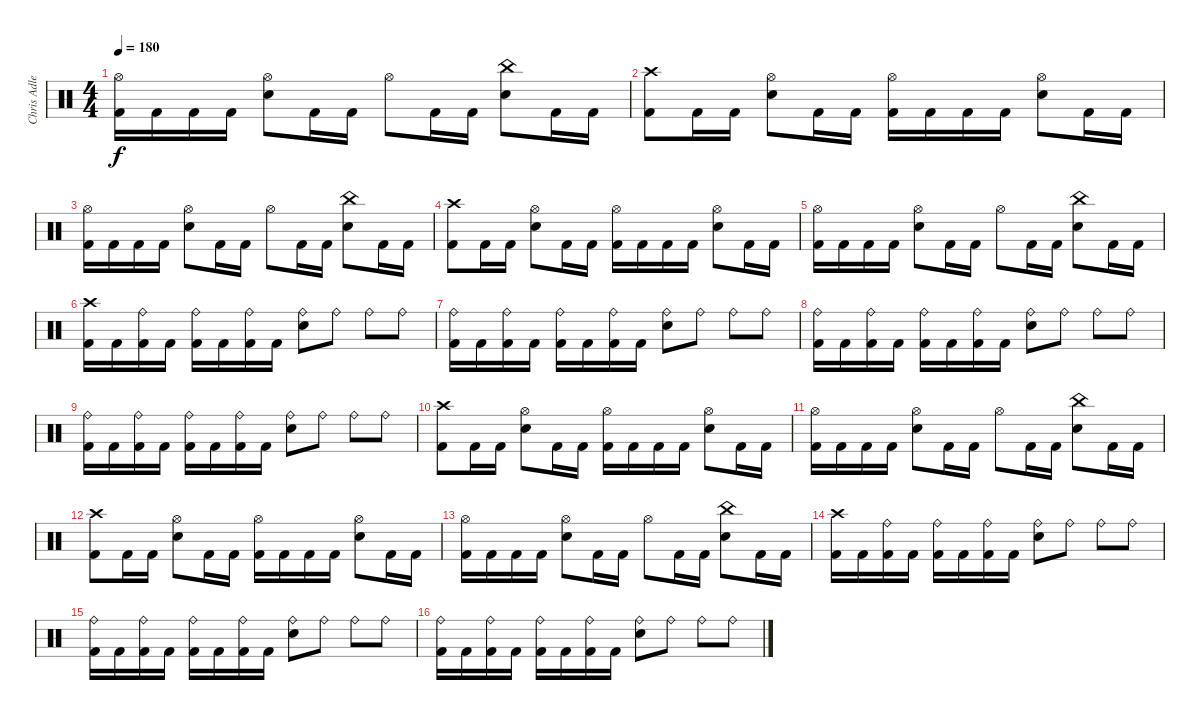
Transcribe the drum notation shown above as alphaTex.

\track ("Chris Adler" "Chris Adle") {instrument percussion}
\staff {score}
\articulation defaults
\ts (4 4)
\tempo 180
\clef neutral
\ks c
("Hi-Hat (open)" "Kick (hit) 2").16{dy f} "Kick (hit) 2".16 "Kick (hit) 2".16 "Kick (hit) 2".16 ("Hi-Hat (open)" "Electric Snare (hit)").8 "Kick (hit) 2".16 "Kick (hit) 2".16 "Hi-Hat (open)".8 "Kick (hit) 2".16 "Kick (hit) 2".16 ("China (hit)" "Electric Snare (hit)").8 "Kick (hit) 2".16 "Kick (hit) 2".16 |
("Crash high (hit)" "Kick (hit) 2").8 "Kick (hit) 2".16 "Kick (hit) 2".16 ("Hi-Hat (open)" "Electric Snare (hit)").8 "Kick (hit) 2".16 "Kick (hit) 2".16 ("Hi-Hat (open)" "Kick (hit) 2").16 "Kick (hit) 2".16 "Kick (hit) 2".16 "Kick (hit) 2".16 ("Hi-Hat (open)" "Electric Snare (hit)").8 "Kick (hit) 2".16 "Kick (hit) 2".16 |
("Hi-Hat (open)" "Kick (hit) 2").16 "Kick (hit) 2".16 "Kick (hit) 2".16 "Kick (hit) 2".16 ("Hi-Hat (open)" "Electric Snare (hit)").8 "Kick (hit) 2".16 "Kick (hit) 2".16 "Hi-Hat (open)".8 "Kick (hit) 2".16 "Kick (hit) 2".16 ("China (hit)" "Electric Snare (hit)").8 "Kick (hit) 2".16 "Kick (hit) 2".16 |
("Crash high (hit)" "Kick (hit) 2").8 "Kick (hit) 2".16 "Kick (hit) 2".16 ("Hi-Hat (open)" "Electric Snare (hit)").8 "Kick (hit) 2".16 "Kick (hit) 2".16 ("Hi-Hat (open)" "Kick (hit) 2").16 "Kick (hit) 2".16 "Kick (hit) 2".16 "Kick (hit) 2".16 ("Hi-Hat (open)" "Electric Snare (hit)").8 "Kick (hit) 2".16 "Kick (hit) 2".16 |
("Hi-Hat (open)" "Kick (hit) 2").16 "Kick (hit) 2".16 "Kick (hit) 2".16 "Kick (hit) 2".16 ("Hi-Hat (open)" "Electric Snare (hit)").8 "Kick (hit) 2".16 "Kick (hit) 2".16 "Hi-Hat (open)".8 "Kick (hit) 2".16 "Kick (hit) 2".16 ("China (hit)" "Electric Snare (hit)").8 "Kick (hit) 2".16 "Kick (hit) 2".16 |
("Crash high (hit)" "Kick (hit) 2").16 "Kick (hit) 2".16 ("Ride (bell)" "Kick (hit) 2").16 "Kick (hit) 2".16 ("Ride (bell)" "Kick (hit) 2").16 "Kick (hit) 2".16 ("Ride (bell)" "Kick (hit) 2").16 "Kick (hit) 2".16 ("Ride (bell)" "Snare (hit) 2").8 "Ride (bell)".8 "Ride (bell)".8 "Ride (bell)".8 |
("Ride (bell)" "Kick (hit) 2").16 "Kick (hit) 2".16 ("Ride (bell)" "Kick (hit) 2").16 "Kick (hit) 2".16 ("Ride (bell)" "Kick (hit) 2").16 "Kick (hit) 2".16 ("Ride (bell)" "Kick (hit) 2").16 "Kick (hit) 2".16 ("Ride (bell)" "Snare (hit) 2").8 "Ride (bell)".8 "Ride (bell)".8 "Ride (bell)".8 |
("Ride (bell)" "Kick (hit) 2").16 "Kick (hit) 2".16 ("Ride (bell)" "Kick (hit) 2").16 "Kick (hit) 2".16 ("Ride (bell)" "Kick (hit) 2").16 "Kick (hit) 2".16 ("Ride (bell)" "Kick (hit) 2").16 "Kick (hit) 2".16 ("Ride (bell)" "Snare (hit) 2").8 "Ride (bell)".8 "Ride (bell)".8 "Ride (bell)".8 |
("Ride (bell)" "Kick (hit) 2").16 "Kick (hit) 2".16 ("Ride (bell)" "Kick (hit) 2").16 "Kick (hit) 2".16 ("Ride (bell)" "Kick (hit) 2").16 "Kick (hit) 2".16 ("Ride (bell)" "Kick (hit) 2").16 "Kick (hit) 2".16 ("Ride (bell)" "Snare (hit) 2").8 "Ride (bell)".8 "Ride (bell)".8 "Ride (bell)".8 |
("Crash high (hit)" "Kick (hit) 2").8 "Kick (hit) 2".16 "Kick (hit) 2".16 ("Hi-Hat (open)" "Electric Snare (hit)").8 "Kick (hit) 2".16 "Kick (hit) 2".16 ("Hi-Hat (open)" "Kick (hit) 2").16 "Kick (hit) 2".16 "Kick (hit) 2".16 "Kick (hit) 2".16 ("Hi-Hat (open)" "Electric Snare (hit)").8 "Kick (hit) 2".16 "Kick (hit) 2".16 |
("Hi-Hat (open)" "Kick (hit) 2").16 "Kick (hit) 2".16 "Kick (hit) 2".16 "Kick (hit) 2".16 ("Hi-Hat (open)" "Electric Snare (hit)").8 "Kick (hit) 2".16 "Kick (hit) 2".16 "Hi-Hat (open)".8 "Kick (hit) 2".16 "Kick (hit) 2".16 ("China (hit)" "Electric Snare (hit)").8 "Kick (hit) 2".16 "Kick (hit) 2".16 |
("Crash high (hit)" "Kick (hit) 2").8 "Kick (hit) 2".16 "Kick (hit) 2".16 ("Hi-Hat (open)" "Electric Snare (hit)").8 "Kick (hit) 2".16 "Kick (hit) 2".16 ("Hi-Hat (open)" "Kick (hit) 2").16 "Kick (hit) 2".16 "Kick (hit) 2".16 "Kick (hit) 2".16 ("Hi-Hat (open)" "Electric Snare (hit)").8 "Kick (hit) 2".16 "Kick (hit) 2".16 |
("Hi-Hat (open)" "Kick (hit) 2").16 "Kick (hit) 2".16 "Kick (hit) 2".16 "Kick (hit) 2".16 ("Hi-Hat (open)" "Electric Snare (hit)").8 "Kick (hit) 2".16 "Kick (hit) 2".16 "Hi-Hat (open)".8 "Kick (hit) 2".16 "Kick (hit) 2".16 ("China (hit)" "Electric Snare (hit)").8 "Kick (hit) 2".16 "Kick (hit) 2".16 |
("Crash high (hit)" "Kick (hit) 2").16 "Kick (hit) 2".16 ("Ride (bell)" "Kick (hit) 2").16 "Kick (hit) 2".16 ("Ride (bell)" "Kick (hit) 2").16 "Kick (hit) 2".16 ("Ride (bell)" "Kick (hit) 2").16 "Kick (hit) 2".16 ("Ride (bell)" "Snare (hit) 2").8 "Ride (bell)".8 "Ride (bell)".8 "Ride (bell)".8 |
("Ride (bell)" "Kick (hit) 2").16 "Kick (hit) 2".16 ("Ride (bell)" "Kick (hit) 2").16 "Kick (hit) 2".16 ("Ride (bell)" "Kick (hit) 2").16 "Kick (hit) 2".16 ("Ride (bell)" "Kick (hit) 2").16 "Kick (hit) 2".16 ("Ride (bell)" "Snare (hit) 2").8 "Ride (bell)".8 "Ride (bell)".8 "Ride (bell)".8 |
("Ride (bell)" "Kick (hit) 2").16 "Kick (hit) 2".16 ("Ride (bell)" "Kick (hit) 2").16 "Kick (hit) 2".16 ("Ride (bell)" "Kick (hit) 2").16 "Kick (hit) 2".16 ("Ride (bell)" "Kick (hit) 2").16 "Kick (hit) 2".16 ("Ride (bell)" "Snare (hit) 2").8 "Ride (bell)".8 "Ride (bell)".8 "Ride (bell)".8
